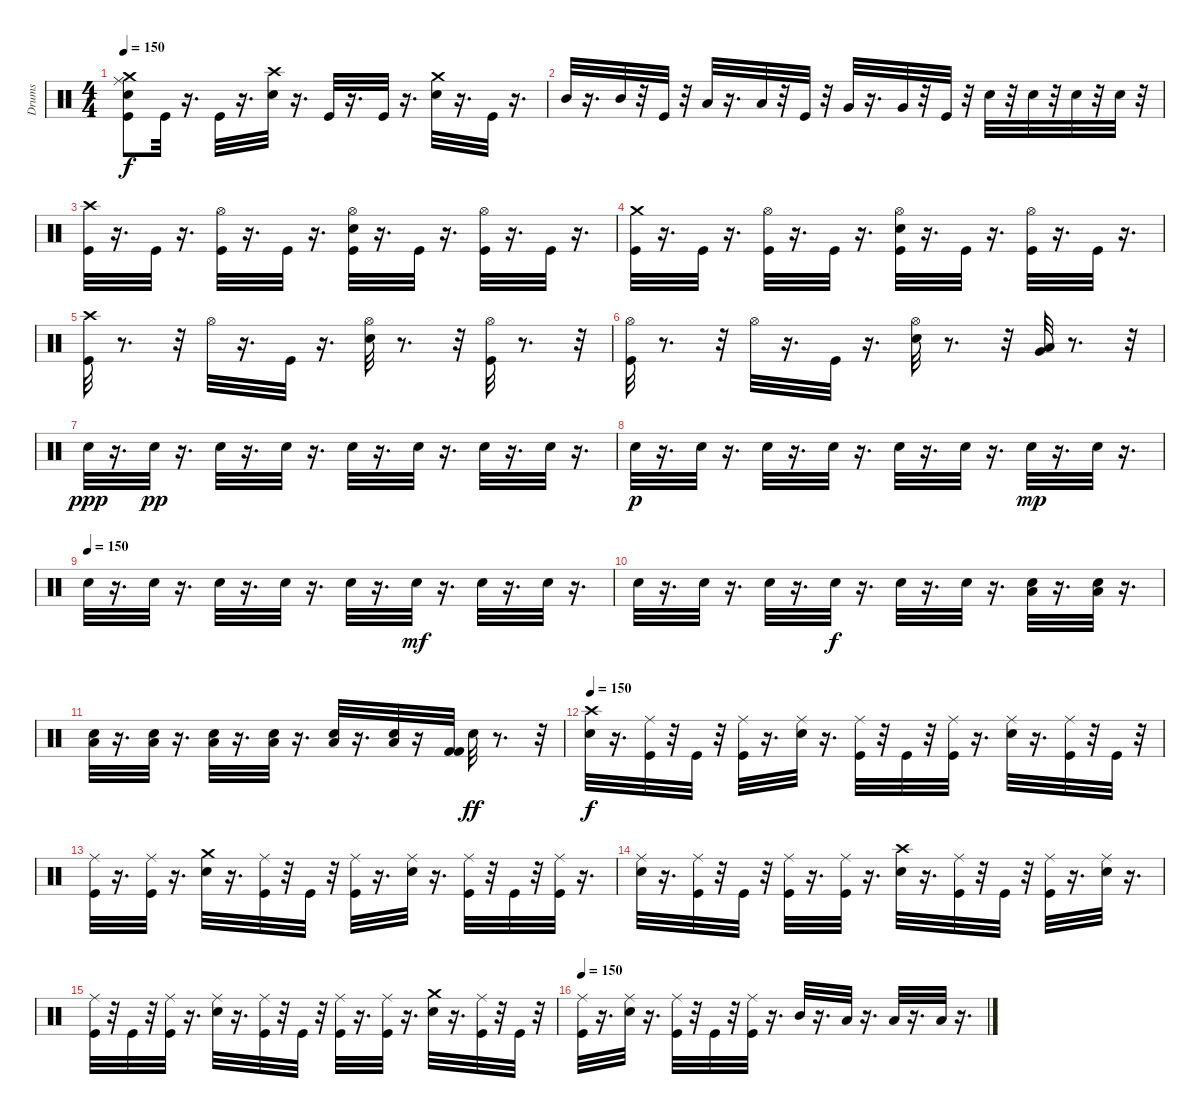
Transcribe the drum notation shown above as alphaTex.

\track ("Drums" "Drums") {instrument percussion}
\staff {score}
\articulation defaults
\ts (4 4)
\tempo 150
\clef neutral
\ks c
("Crash medium (hit)" "Electric Snare (hit)" "Ride (middle)" "Kick (hit)").8{dy f} "Kick (hit)".32 r.16{d} "Kick (hit)".32 r.16{d} ("Crash high (hit)" "Electric Snare (hit)").32 r.16{d} "Kick (hit)".32 r.16{d} "Kick (hit)".32 r.16{d} ("Crash medium (hit)" "Electric Snare (hit)").32 r.16{d} "Kick (hit)".32 r.16{d} |
"Mid Tom (hit)".32 r.16{d} "Mid Tom (hit)".32 r.32 "Kick (hit)".32 r.32 "Low Tom (hit)".32 r.16{d} "Low Tom (hit)".32 r.32 "Kick (hit)".32 r.32 "Very Low Tom (hit)".32 r.16{d} "Very Low Tom (hit)".32 r.32 "Kick (hit)".32 r.32 "Electric Snare (hit)".32 r.32 "Electric Snare (hit)".32 r.32 "Electric Snare (hit)".32 r.32 "Electric Snare (hit)".32 r.32 |
("Crash high (hit)" "Kick (hit)").32 r.16{d} "Kick (hit)".32 r.16{d} ("Hi-Hat (open)" "Kick (hit)").32 r.16{d} "Kick (hit)".32 r.16{d} ("Kick (hit)" "Hi-Hat (open)" "Electric Snare (hit)").32 r.16{d} "Kick (hit)".32 r.16{d} ("Hi-Hat (open)" "Kick (hit)").32 r.16{d} "Kick (hit)".32 r.16{d} |
("Crash medium (hit)" "Kick (hit)").32 r.16{d} "Kick (hit)".32 r.16{d} ("Hi-Hat (open)" "Kick (hit)").32 r.16{d} "Kick (hit)".32 r.16{d} ("Hi-Hat (open)" "Kick (hit)" "Electric Snare (hit)").32 r.16{d} "Kick (hit)".32 r.16{d} ("Kick (hit)" "Hi-Hat (open)").32 r.16{d} "Kick (hit)".32 r.16{d} |
("Crash high (hit)" "Kick (hit)").32 r.8{d} r.32 "Hi-Hat (open)".32 r.16{d} "Kick (hit)".32 r.16{d} ("Hi-Hat (open)" "Electric Snare (hit)").32 r.8{d} r.32 ("Hi-Hat (open)" "Kick (hit)").32 r.8{d} r.32 |
("Hi-Hat (open)" "Kick (hit)").32 r.8{d} r.32 "Hi-Hat (open)".32 r.16{d} "Kick (hit)".32 r.16{d} ("Hi-Hat (open)" "Electric Snare (hit)").32 r.8{d} r.32 ("Very Low Tom (hit)" "Low Tom (hit)").32 r.8{d} r.32 |
"Electric Snare (hit)".32{dy ppp} r.16{d} "Electric Snare (hit)".32{dy pp} r.16{d} "Electric Snare (hit)".32 r.16{d} "Electric Snare (hit)".32 r.16{d} "Electric Snare (hit)".32 r.16{d} "Electric Snare (hit)".32 r.16{d} "Electric Snare (hit)".32 r.16{d} "Electric Snare (hit)".32 r.16{d} |
"Electric Snare (hit)".32{dy p} r.16{d} "Electric Snare (hit)".32 r.16{d} "Electric Snare (hit)".32 r.16{d} "Electric Snare (hit)".32 r.16{d} "Electric Snare (hit)".32 r.16{d} "Electric Snare (hit)".32 r.16{d} "Electric Snare (hit)".32{dy mp} r.16{d} "Electric Snare (hit)".32 r.16{d} |
\tempo (150)
"Electric Snare (hit)".32 r.16{d} "Electric Snare (hit)".32 r.16{d} "Electric Snare (hit)".32 r.16{d} "Electric Snare (hit)".32 r.16{d} "Electric Snare (hit)".32 r.16{d} "Electric Snare (hit)".32{dy mf} r.16{d} "Electric Snare (hit)".32 r.16{d} "Electric Snare (hit)".32 r.16{d} |
"Electric Snare (hit)".32 r.16{d} "Electric Snare (hit)".32 r.16{d} "Electric Snare (hit)".32 r.16{d} "Electric Snare (hit)".32{dy f} r.16{d} "Electric Snare (hit)".32 r.16{d} "Electric Snare (hit)".32 r.16{d} ("Electric Snare (hit)" "Low Floor Tom (hit)").32 r.16{d} ("Low Floor Tom (hit)" "Electric Snare (hit)").32 r.16{d} |
("Low Floor Tom (hit)" "Electric Snare (hit)").32 r.16{d} ("Low Floor Tom (hit)" "Electric Snare (hit)").32 r.16{d} ("Low Floor Tom (hit)" "Electric Snare (hit)").32 r.16{d} ("Low Floor Tom (hit)" "Electric Snare (hit)").32 r.16{d} ("Low Floor Tom (hit)" "Electric Snare (hit)").32 r.16{d} ("Electric Snare (hit)" "Low Floor Tom (hit)").32 r.16 ("Kick (hit) 2" "Kick (hit) 2").32 "Electric Snare (hit)".32{dy ff} r.8{d} r.32 |
\tempo 150
("Crash high (hit)" "Electric Snare (hit)").32{dy f} r.16{d} ("Ride (middle)" "Kick (hit)").32 r.32 "Kick (hit)".32 r.32 ("Kick (hit)" "Ride (middle)").32 r.16{d} ("Ride (middle)" "Electric Snare (hit)").32 r.16{d} ("Ride (middle)" "Kick (hit)").32 r.32 "Kick (hit)".32 r.32 ("Ride (middle)" "Kick (hit)").32 r.16{d} ("Ride (middle)" "Electric Snare (hit)").32 r.16{d} ("Ride (middle)" "Kick (hit)").32 r.32 "Kick (hit)".32 r.32 |
("Ride (middle)" "Kick (hit)").32 r.16{d} ("Ride (middle)" "Kick (hit)").32 r.16{d} ("Crash medium (hit)" "Electric Snare (hit)").32 r.16{d} ("Kick (hit)" "Ride (middle)").32 r.32 "Kick (hit)".32 r.32 ("Kick (hit)" "Ride (middle)").32 r.16{d} ("Electric Snare (hit)" "Ride (middle)").32 r.16{d} ("Kick (hit)" "Ride (middle)").32 r.32 "Kick (hit)".32 r.32 ("Kick (hit)" "Ride (middle)").32 r.16{d} |
("Electric Snare (hit)" "Ride (middle)").32 r.16{d} ("Kick (hit)" "Ride (middle)").32 r.32 "Kick (hit)".32 r.32 ("Kick (hit)" "Ride (middle)").32 r.16{d} ("Ride (middle)" "Kick (hit)").32 r.16{d} ("Electric Snare (hit)" "Crash high (hit)").32 r.16{d} ("Ride (middle)" "Kick (hit)").32 r.32 "Kick (hit)".32 r.32 ("Ride (middle)" "Kick (hit)").32 r.16{d} ("Ride (middle)" "Electric Snare (hit)").32 r.16{d} |
("Ride (middle)" "Kick (hit)").32 r.32 "Kick (hit)".32 r.32 ("Ride (middle)" "Kick (hit)").32 r.16{d} ("Ride (middle)" "Electric Snare (hit)").32 r.16{d} ("Ride (middle)" "Kick (hit)").32 r.32 "Kick (hit)".32 r.32 ("Ride (middle)" "Kick (hit)").32 r.16{d} ("Ride (middle)" "Kick (hit)").32 r.16{d} ("Electric Snare (hit)" "Crash medium (hit)").32 r.16{d} ("Kick (hit)" "Ride (middle)").32 r.32 "Kick (hit)".32 r.32 |
\tempo 150
("Ride (middle)" "Kick (hit)").32 r.16{d} ("Ride (middle)" "Electric Snare (hit)").32 r.16{d} ("Ride (middle)" "Kick (hit)").32 r.32 "Kick (hit)".32 r.32 ("Ride (middle)" "Kick (hit)").32 r.16{d} "Mid Tom (hit)".32 r.16{d} "Low Tom (hit)".32 r.16{d} "Low Tom (hit)".32 r.16{d} "Low Floor Tom (hit)".32 r.16{d}
